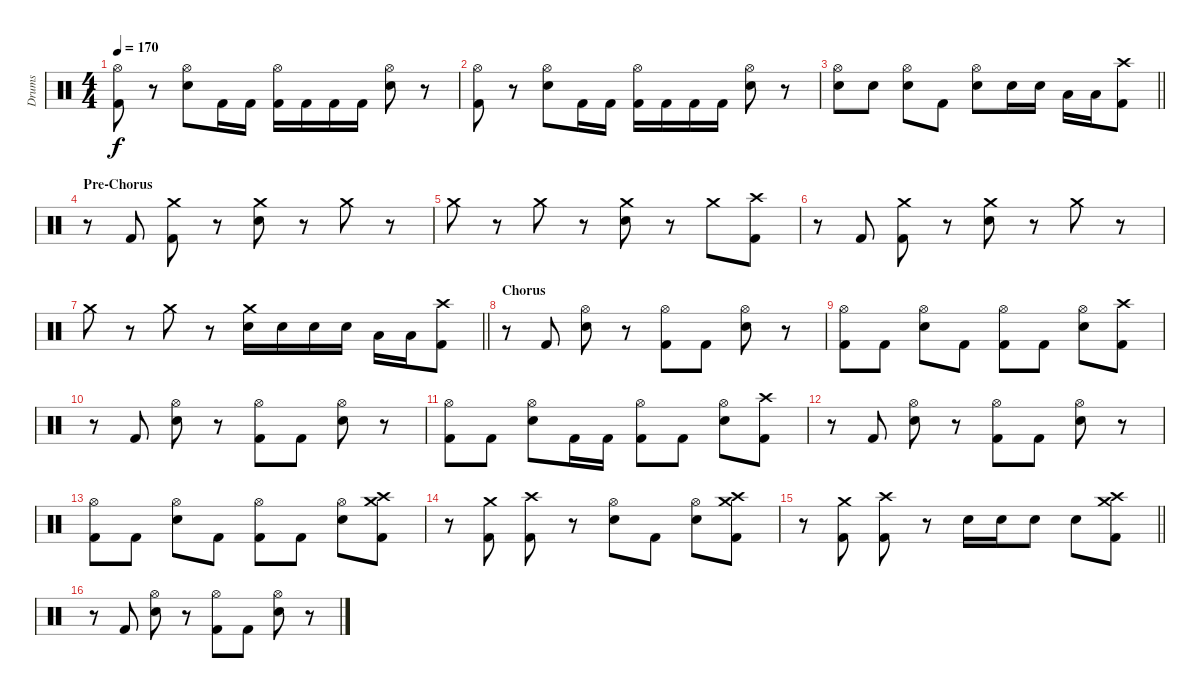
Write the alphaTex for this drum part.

\track ("Drums" "Drums") {instrument percussion}
\staff {score}
\articulation defaults
\ts (4 4)
\tempo 170
\clef neutral
\ks c
("Hi-Hat (open)" "Kick (hit) 2").8{dy f} r.8 ("Hi-Hat (open)" "Snare (hit) 2").8 "Kick (hit) 2".16 "Kick (hit) 2".16 ("Hi-Hat (open)" "Kick (hit) 2").16 "Kick (hit) 2".16 "Kick (hit) 2".16 "Kick (hit) 2".16 ("Hi-Hat (open)" "Snare (hit) 2").8 r.8 |
("Hi-Hat (open)" "Kick (hit) 2").8 r.8 ("Hi-Hat (open)" "Snare (hit) 2").8 "Kick (hit) 2".16 "Kick (hit) 2".16 ("Hi-Hat (open)" "Kick (hit) 2").16 "Kick (hit) 2".16 "Kick (hit) 2".16 "Kick (hit) 2".16 ("Hi-Hat (open)" "Snare (hit) 2").8 r.8 |
\barLineRight lightlight
("Hi-Hat (open)" "Snare (hit) 2").8 "Snare (hit) 2".8 ("Hi-Hat (open)" "Snare (hit) 2").8 "Kick (hit) 2".8 ("Hi-Hat (open)" "Snare (hit) 2").8 "Snare (hit) 2".16 "Snare (hit) 2".16 "Low Tom (hit)".16 "Low Tom (hit)".16 ("Crash high (hit)" "Kick (hit) 2").8 |
\section ("" "Pre-Chorus")
r.8 "Kick (hit) 2".8 ("Crash medium (hit)" "Kick (hit) 2").8 r.8 ("Crash medium (hit)" "Snare (hit) 2").8 r.8 "Crash medium (hit)".8 r.8 |
"Crash medium (hit)".8 r.8 "Crash medium (hit)".8 r.8 ("Crash medium (hit)" "Snare (hit) 2").8 r.8 "Crash medium (hit)".8 ("Crash high (hit)" "Kick (hit) 2").8 |
r.8 "Kick (hit) 2".8 ("Crash medium (hit)" "Kick (hit) 2").8 r.8 ("Crash medium (hit)" "Snare (hit) 2").8 r.8 "Crash medium (hit)".8 r.8 |
\barLineRight lightlight "Crash medium (hit)".8
r.8 "Crash medium (hit)".8 r.8 ("Crash medium (hit)" "Snare (hit) 2").16 "Snare (hit) 2".16 "Snare (hit) 2".16 "Snare (hit) 2".16 "Low Tom (hit)".16 "Low Tom (hit)".16 ("Crash high (hit)" "Kick (hit) 2").8 |
\section ("" "Chorus")
r.8 "Kick (hit) 2".8 ("Hi-Hat (open)" "Snare (hit) 2").8 r.8 ("Hi-Hat (open)" "Kick (hit) 2").8 "Kick (hit) 2".8 ("Hi-Hat (open)" "Snare (hit) 2").8 r.8 |
("Hi-Hat (open)" "Kick (hit) 2").8 "Kick (hit) 2".8 ("Hi-Hat (open)" "Snare (hit) 2").8 "Kick (hit) 2".8 ("Hi-Hat (open)" "Kick (hit) 2").8 "Kick (hit) 2".8 ("Hi-Hat (open)" "Snare (hit) 2").8 ("Crash high (hit)" "Kick (hit) 2").8 |
r.8 "Kick (hit) 2".8 ("Hi-Hat (open)" "Snare (hit) 2").8 r.8 ("Hi-Hat (open)" "Kick (hit) 2").8 "Kick (hit) 2".8 ("Hi-Hat (open)" "Snare (hit) 2").8 r.8 |
("Hi-Hat (open)" "Kick (hit) 2").8 "Kick (hit) 2".8 ("Hi-Hat (open)" "Snare (hit) 2").8 "Kick (hit) 2".16 "Kick (hit) 2".16 ("Hi-Hat (open)" "Kick (hit) 2").8 "Kick (hit) 2".8 ("Hi-Hat (open)" "Snare (hit) 2").8 ("Crash high (hit)" "Kick (hit) 2").8 |
r.8 "Kick (hit) 2".8 ("Hi-Hat (open)" "Snare (hit) 2").8 r.8 ("Hi-Hat (open)" "Kick (hit) 2").8 "Kick (hit) 2".8 ("Hi-Hat (open)" "Snare (hit) 2").8 r.8 |
("Hi-Hat (open)" "Kick (hit) 2").8 "Kick (hit) 2".8 ("Hi-Hat (open)" "Snare (hit) 2").8 "Kick (hit) 2".8 ("Hi-Hat (open)" "Kick (hit) 2").8 "Kick (hit) 2".8 ("Hi-Hat (open)" "Snare (hit) 2").8 ("Crash high (hit)" "Crash medium (hit)" "Kick (hit) 2").8 |
r.8 ("Crash medium (hit)" "Kick (hit) 2").8 ("Crash high (hit)" "Kick (hit) 2").8 r.8 ("Hi-Hat (open)" "Snare (hit) 2").8 "Kick (hit) 2".8 ("Hi-Hat (open)" "Snare (hit) 2").8 ("Crash high (hit)" "Crash medium (hit)" "Kick (hit) 2").8 |
\barLineRight lightlight
r.8 ("Crash medium (hit)" "Kick (hit) 2").8 ("Crash high (hit)" "Kick (hit) 2").8 r.8 "Snare (hit) 2".16 "Snare (hit) 2".16 "Snare (hit) 2".8 "Snare (hit) 2".8 ("Crash high (hit)" "Crash medium (hit)" "Kick (hit) 2").8 |
r.8 "Kick (hit) 2".8 ("Hi-Hat (open)" "Snare (hit) 2").8 r.8 ("Hi-Hat (open)" "Kick (hit) 2").8 "Kick (hit) 2".8 ("Hi-Hat (open)" "Snare (hit) 2").8 r.8
